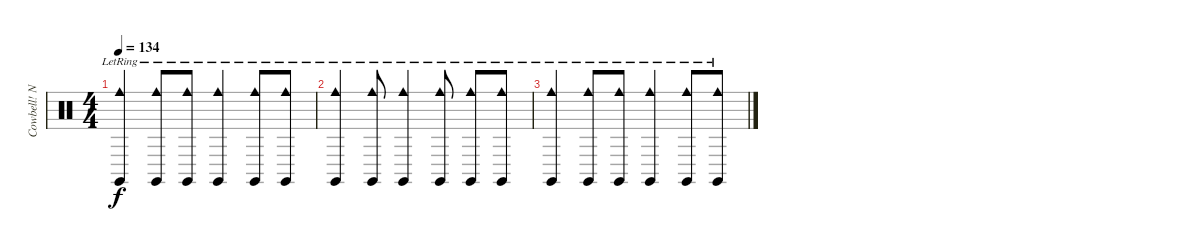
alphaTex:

\track ("Cowbell! Need More Cowbell!" "Cowbell! N") {instrument percussion}
\staff {score}
\articulation defaults
\ts (4 4)
\tempo 134
\clef neutral
\ks c
("Cowbell medium (hit)"{lr} "Claves (hit)").4{dy f} ("Cowbell medium (hit)"{lr} "Claves (hit)").8 ("Cowbell medium (hit)"{lr} "Claves (hit)").8 ("Cowbell medium (hit)"{lr} "Claves (hit)").4 ("Cowbell medium (hit)"{lr} "Claves (hit)").8 ("Cowbell medium (hit)"{lr} "Claves (hit)").8 |
("Cowbell medium (hit)"{lr} "Claves (hit)").4 ("Cowbell medium (hit)"{lr} "Claves (hit)").8 ("Cowbell medium (hit)"{lr} "Claves (hit)").4 ("Cowbell medium (hit)"{lr} "Claves (hit)").8 ("Cowbell medium (hit)"{lr} "Claves (hit)").8 ("Cowbell medium (hit)"{lr} "Claves (hit)").8 |
("Cowbell medium (hit)"{lr} "Claves (hit)").4 ("Cowbell medium (hit)"{lr} "Claves (hit)").8 ("Cowbell medium (hit)"{lr} "Claves (hit)").8 ("Cowbell medium (hit)"{lr} "Claves (hit)").4 ("Cowbell medium (hit)"{lr} "Claves (hit)").8 ("Cowbell medium (hit)"{lr} "Claves (hit)").8
